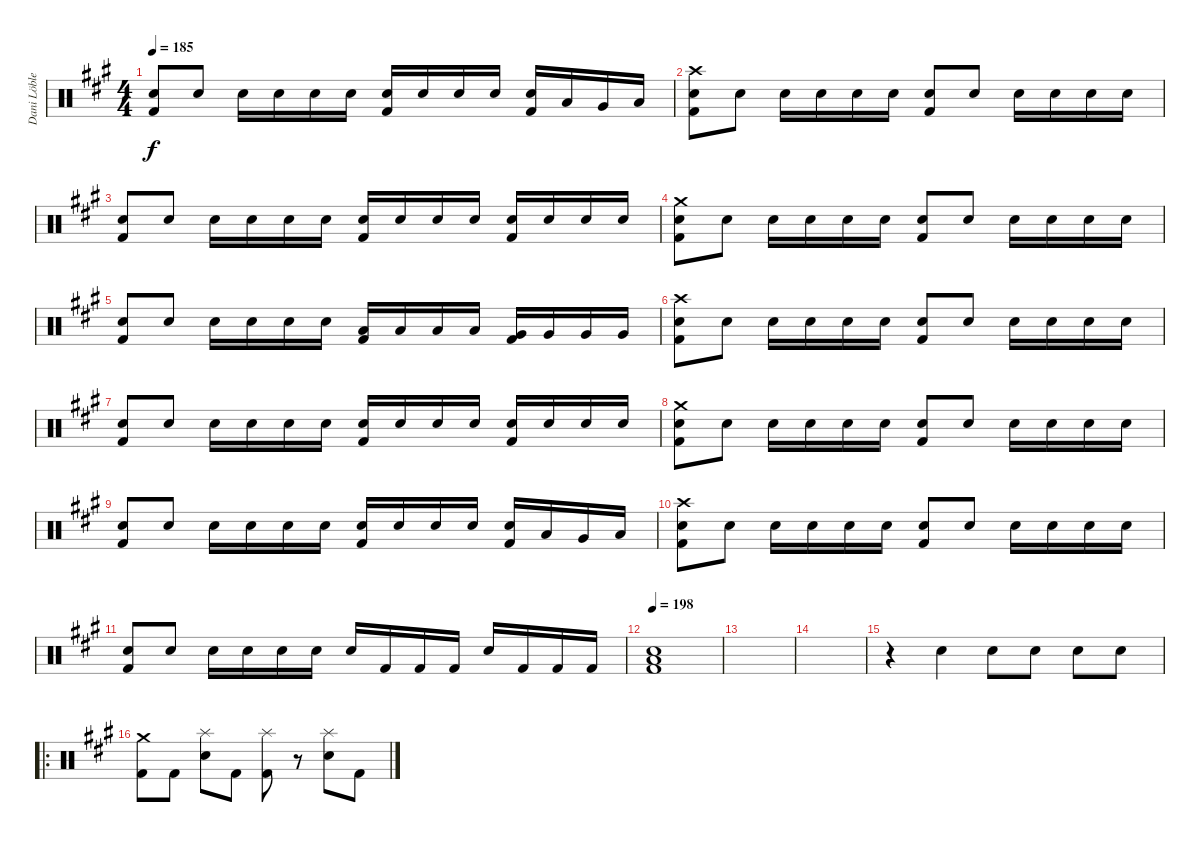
\track ("Dani Löble" "Dani Löble") {instrument percussion}
\staff {score}
\articulation defaults
\ts (4 4)
\tempo 185
\clef neutral
\ks f#minor
("Electric Snare (hit)" "Kick (hit) 2").8{dy f} "Electric Snare (hit)".8 "Electric Snare (hit)".16 "Electric Snare (hit)".16 "Electric Snare (hit)".16 "Electric Snare (hit)".16 ("Electric Snare (hit)" "Kick (hit) 2").16 "Electric Snare (hit)".16 "Electric Snare (hit)".16 "Electric Snare (hit)".16 ("Electric Snare (hit)" "Kick (hit) 2").16 "Low Tom (hit)".16 "Very Low Tom (hit)".16 "Low Floor Tom (hit)".16 |
("Crash high (hit)" "Electric Snare (hit)" "Kick (hit) 2").8 "Electric Snare (hit)".8 "Electric Snare (hit)".16 "Electric Snare (hit)".16 "Electric Snare (hit)".16 "Electric Snare (hit)".16 ("Electric Snare (hit)" "Kick (hit) 2").8 "Electric Snare (hit)".8 "Electric Snare (hit)".16 "Electric Snare (hit)".16 "Electric Snare (hit)".16 "Electric Snare (hit)".16 |
("Electric Snare (hit)" "Kick (hit) 2").8 "Electric Snare (hit)".8 "Electric Snare (hit)".16 "Electric Snare (hit)".16 "Electric Snare (hit)".16 "Electric Snare (hit)".16 ("Electric Snare (hit)" "Kick (hit) 2").16 "Electric Snare (hit)".16 "Electric Snare (hit)".16 "Electric Snare (hit)".16 ("Electric Snare (hit)" "Kick (hit) 2").16 "Electric Snare (hit)".16 "Electric Snare (hit)".16 "Electric Snare (hit)".16 |
("Crash medium (hit)" "Electric Snare (hit)" "Kick (hit) 2").8 "Electric Snare (hit)".8 "Electric Snare (hit)".16 "Electric Snare (hit)".16 "Electric Snare (hit)".16 "Electric Snare (hit)".16 ("Electric Snare (hit)" "Kick (hit) 2").8 "Electric Snare (hit)".8 "Electric Snare (hit)".16 "Electric Snare (hit)".16 "Electric Snare (hit)".16 "Electric Snare (hit)".16 |
("Electric Snare (hit)" "Kick (hit) 2").8 "Electric Snare (hit)".8 "Electric Snare (hit)".16 "Electric Snare (hit)".16 "Electric Snare (hit)".16 "Electric Snare (hit)".16 ("Low Tom (hit)" "Kick (hit) 2").16 "Low Tom (hit)".16 "Low Tom (hit)".16 "Low Tom (hit)".16 ("Very Low Tom (hit)" "Kick (hit) 2").16 "Very Low Tom (hit)".16 "Very Low Tom (hit)".16 "Very Low Tom (hit)".16 |
("Crash high (hit)" "Electric Snare (hit)" "Kick (hit) 2").8 "Electric Snare (hit)".8 "Electric Snare (hit)".16 "Electric Snare (hit)".16 "Electric Snare (hit)".16 "Electric Snare (hit)".16 ("Electric Snare (hit)" "Kick (hit) 2").8 "Electric Snare (hit)".8 "Electric Snare (hit)".16 "Electric Snare (hit)".16 "Electric Snare (hit)".16 "Electric Snare (hit)".16 |
("Electric Snare (hit)" "Kick (hit) 2").8 "Electric Snare (hit)".8 "Electric Snare (hit)".16 "Electric Snare (hit)".16 "Electric Snare (hit)".16 "Electric Snare (hit)".16 ("Electric Snare (hit)" "Kick (hit) 2").16 "Electric Snare (hit)".16 "Electric Snare (hit)".16 "Electric Snare (hit)".16 ("Electric Snare (hit)" "Kick (hit) 2").16 "Electric Snare (hit)".16 "Electric Snare (hit)".16 "Electric Snare (hit)".16 |
("Crash medium (hit)" "Electric Snare (hit)" "Kick (hit) 2").8 "Electric Snare (hit)".8 "Electric Snare (hit)".16 "Electric Snare (hit)".16 "Electric Snare (hit)".16 "Electric Snare (hit)".16 ("Electric Snare (hit)" "Kick (hit) 2").8 "Electric Snare (hit)".8 "Electric Snare (hit)".16 "Electric Snare (hit)".16 "Electric Snare (hit)".16 "Electric Snare (hit)".16 |
("Electric Snare (hit)" "Kick (hit) 2").8 "Electric Snare (hit)".8 "Electric Snare (hit)".16 "Electric Snare (hit)".16 "Electric Snare (hit)".16 "Electric Snare (hit)".16 ("Electric Snare (hit)" "Kick (hit) 2").16 "Electric Snare (hit)".16 "Electric Snare (hit)".16 "Electric Snare (hit)".16 ("Electric Snare (hit)" "Kick (hit) 2").16 "Low Tom (hit)".16 "Very Low Tom (hit)".16 "Low Floor Tom (hit)".16 |
("Crash high (hit)" "Electric Snare (hit)" "Kick (hit) 2").8 "Electric Snare (hit)".8 "Electric Snare (hit)".16 "Electric Snare (hit)".16 "Electric Snare (hit)".16 "Electric Snare (hit)".16 ("Electric Snare (hit)" "Kick (hit) 2").8 "Electric Snare (hit)".8 "Electric Snare (hit)".16 "Electric Snare (hit)".16 "Electric Snare (hit)".16 "Electric Snare (hit)".16 |
("Electric Snare (hit)" "Kick (hit) 2").8 "Electric Snare (hit)".8 "Electric Snare (hit)".16 "Electric Snare (hit)".16 "Electric Snare (hit)".16 "Electric Snare (hit)".16 "Electric Snare (hit)".16 "Kick (hit) 2".16 "Kick (hit) 2".16 "Kick (hit) 2".16 "Electric Snare (hit)".16 "Kick (hit) 2".16 "Kick (hit) 2".16 "Kick (hit) 2".16 |
\tempo 198
("Low Floor Tom (hit)" "Electric Snare (hit)" "Kick (hit) 2").1 |
|
|
r.4 "Snare (hit) 2".4 "Snare (hit) 2".8 "Snare (hit) 2".8 "Snare (hit) 2".8 "Snare (hit) 2".8 |
\ro
("Crash medium (hit)" "Kick (hit) 2").8 "Kick (hit) 2".8 ("Splash (hit)" "Snare (hit) 2").8 "Kick (hit) 2".8 ("Splash (hit)" "Kick (hit) 2").8 r.8 ("Splash (hit)" "Snare (hit) 2").8 "Kick (hit) 2".8
